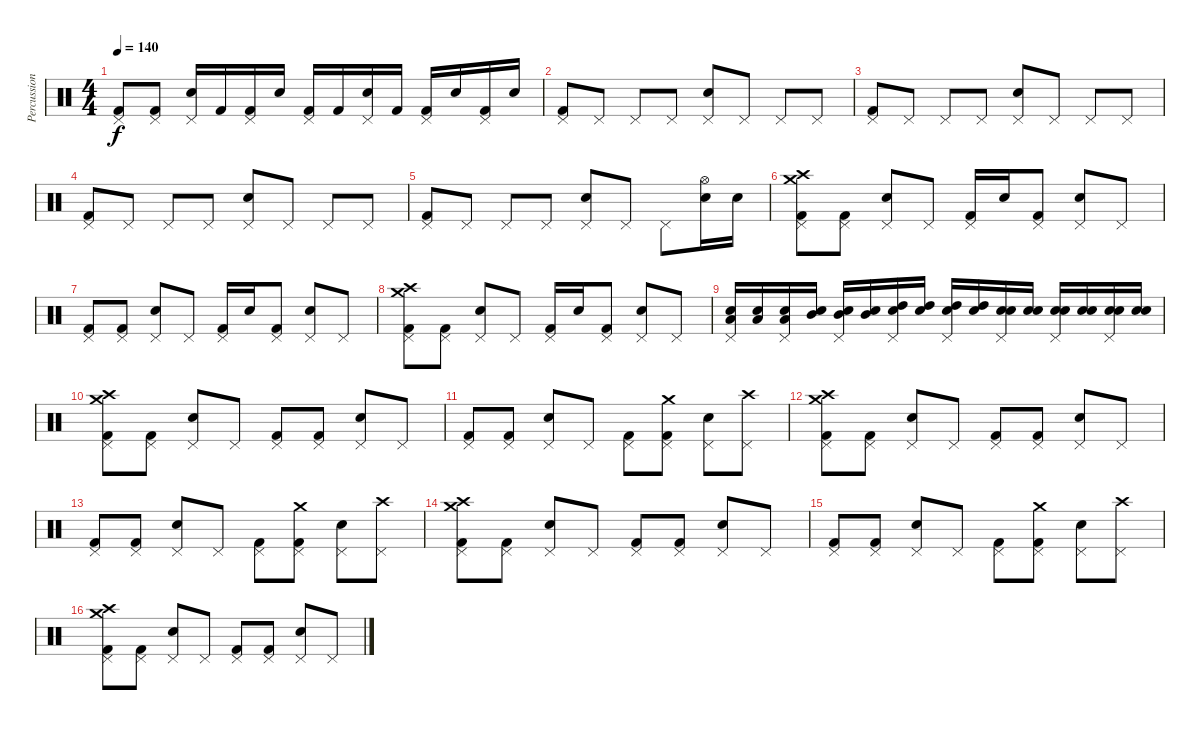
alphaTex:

\track ("Percussion" "Percussion") {instrument percussion}
\staff {score}
\articulation defaults
\ts (4 4)
\tempo 140
\clef neutral
\ks c
("Pedal Hi-Hat (hit)" "Kick (hit) 2").8{dy f} ("Pedal Hi-Hat (hit)" "Kick (hit) 2").8 ("Pedal Hi-Hat (hit)" "Electric Snare (hit)").16 "Kick (hit) 2".16 ("Pedal Hi-Hat (hit)" "Kick (hit) 2").16 "Electric Snare (hit)".16 ("Pedal Hi-Hat (hit)" "Kick (hit) 2").16 "Kick (hit) 2".16 ("Pedal Hi-Hat (hit)" "Electric Snare (hit)").16 "Kick (hit) 2".16 ("Pedal Hi-Hat (hit)" "Kick (hit) 2").16 "Electric Snare (hit)".16 ("Pedal Hi-Hat (hit)" "Kick (hit) 2").16 "Electric Snare (hit)".16 |
("Pedal Hi-Hat (hit)" "Kick (hit) 2").8{volume 6} "Pedal Hi-Hat (hit)".8 "Pedal Hi-Hat (hit)".8 "Pedal Hi-Hat (hit)".8 ("Pedal Hi-Hat (hit)" "Electric Snare (hit)").8 "Pedal Hi-Hat (hit)".8 "Pedal Hi-Hat (hit)".8 "Pedal Hi-Hat (hit)".8 |
("Pedal Hi-Hat (hit)" "Kick (hit) 2").8 "Pedal Hi-Hat (hit)".8 "Pedal Hi-Hat (hit)".8 "Pedal Hi-Hat (hit)".8 ("Pedal Hi-Hat (hit)" "Electric Snare (hit)").8 "Pedal Hi-Hat (hit)".8 "Pedal Hi-Hat (hit)".8 "Pedal Hi-Hat (hit)".8 |
("Pedal Hi-Hat (hit)" "Kick (hit) 2").8 "Pedal Hi-Hat (hit)".8 "Pedal Hi-Hat (hit)".8 "Pedal Hi-Hat (hit)".8 ("Pedal Hi-Hat (hit)" "Electric Snare (hit)").8 "Pedal Hi-Hat (hit)".8 "Pedal Hi-Hat (hit)".8 "Pedal Hi-Hat (hit)".8 |
("Pedal Hi-Hat (hit)" "Kick (hit) 2").8 "Pedal Hi-Hat (hit)".8 "Pedal Hi-Hat (hit)".8 "Pedal Hi-Hat (hit)".8 ("Pedal Hi-Hat (hit)" "Electric Snare (hit)").8 "Pedal Hi-Hat (hit)".8 "Pedal Hi-Hat (hit)".8 ("Hi-Hat (open)" "Electric Snare (hit)").16{volume 13} "Electric Snare (hit)".16 |
("Pedal Hi-Hat (hit)" "Kick (hit) 2" "Crash high (hit)" "Crash medium (hit)").8 ("Pedal Hi-Hat (hit)" "Kick (hit) 2").8 ("Pedal Hi-Hat (hit)" "Electric Snare (hit)").8 "Pedal Hi-Hat (hit)".8 ("Pedal Hi-Hat (hit)" "Kick (hit) 2").16 "Electric Snare (hit)".16 ("Pedal Hi-Hat (hit)" "Kick (hit) 2").8 ("Pedal Hi-Hat (hit)" "Electric Snare (hit)").8 "Pedal Hi-Hat (hit)".8 |
("Pedal Hi-Hat (hit)" "Kick (hit) 2").8 ("Pedal Hi-Hat (hit)" "Kick (hit) 2").8 ("Pedal Hi-Hat (hit)" "Electric Snare (hit)").8 "Pedal Hi-Hat (hit)".8 ("Pedal Hi-Hat (hit)" "Kick (hit) 2").16 "Electric Snare (hit)".16 ("Pedal Hi-Hat (hit)" "Kick (hit) 2").8 ("Pedal Hi-Hat (hit)" "Electric Snare (hit)").8 "Pedal Hi-Hat (hit)".8 |
("Pedal Hi-Hat (hit)" "Kick (hit) 2" "Crash high (hit)" "Crash medium (hit)").8 ("Pedal Hi-Hat (hit)" "Kick (hit) 2").8 ("Pedal Hi-Hat (hit)" "Electric Snare (hit)").8 "Pedal Hi-Hat (hit)".8 ("Pedal Hi-Hat (hit)" "Kick (hit) 2").16 "Electric Snare (hit)".16 ("Pedal Hi-Hat (hit)" "Kick (hit) 2").8 ("Pedal Hi-Hat (hit)" "Electric Snare (hit)").8 "Pedal Hi-Hat (hit)".8 |
("Pedal Hi-Hat (hit)" "Low Tom (hit)" "Electric Snare (hit)").16 ("Low Tom (hit)" "Electric Snare (hit)").16 ("Pedal Hi-Hat (hit)" "Low Tom (hit)" "Electric Snare (hit)").16 ("Mid Tom (hit)" "Electric Snare (hit)").16 ("Pedal Hi-Hat (hit)" "Mid Tom (hit)" "Electric Snare (hit)").16 ("Mid Tom (hit)" "Electric Snare (hit)").16 ("Pedal Hi-Hat (hit)" "High Tom (hit)" "Electric Snare (hit)").16 ("High Tom (hit)" "Electric Snare (hit)").16 ("Pedal Hi-Hat (hit)" "High Tom (hit)" "Electric Snare (hit)").16 ("High Tom (hit)" "Electric Snare (hit)").16 ("Pedal Hi-Hat (hit)" "Electric Snare (hit)" "Electric Snare (hit)").16 ("Electric Snare (hit)" "Electric Snare (hit)").16 ("Pedal Hi-Hat (hit)" "Electric Snare (hit)" "Electric Snare (hit)").16 ("Electric Snare (hit)" "Electric Snare (hit)").16 ("Pedal Hi-Hat (hit)" "Electric Snare (hit)" "Electric Snare (hit)").16 ("Electric Snare (hit)" "Electric Snare (hit)").16 |
("Pedal Hi-Hat (hit)" "Kick (hit) 2" "Crash high (hit)" "Crash medium (hit)").8 ("Pedal Hi-Hat (hit)" "Kick (hit) 2").8 ("Pedal Hi-Hat (hit)" "Electric Snare (hit)").8 "Pedal Hi-Hat (hit)".8 ("Pedal Hi-Hat (hit)" "Kick (hit) 2").8 ("Pedal Hi-Hat (hit)" "Kick (hit) 2").8 ("Pedal Hi-Hat (hit)" "Electric Snare (hit)").8 "Pedal Hi-Hat (hit)".8 |
("Pedal Hi-Hat (hit)" "Kick (hit) 2").8 ("Pedal Hi-Hat (hit)" "Kick (hit) 2").8 ("Pedal Hi-Hat (hit)" "Electric Snare (hit)").8 "Pedal Hi-Hat (hit)".8 ("Pedal Hi-Hat (hit)" "Kick (hit) 2").8 ("Pedal Hi-Hat (hit)" "Kick (hit) 2" "Crash medium (hit)").8 ("Pedal Hi-Hat (hit)" "Electric Snare (hit)").8 ("Pedal Hi-Hat (hit)" "Crash high (hit)").8 |
("Pedal Hi-Hat (hit)" "Kick (hit) 2" "Crash high (hit)" "Crash medium (hit)").8 ("Pedal Hi-Hat (hit)" "Kick (hit) 2").8 ("Pedal Hi-Hat (hit)" "Electric Snare (hit)").8 "Pedal Hi-Hat (hit)".8 ("Pedal Hi-Hat (hit)" "Kick (hit) 2").8 ("Pedal Hi-Hat (hit)" "Kick (hit) 2").8 ("Pedal Hi-Hat (hit)" "Electric Snare (hit)").8 "Pedal Hi-Hat (hit)".8 |
("Pedal Hi-Hat (hit)" "Kick (hit) 2").8 ("Pedal Hi-Hat (hit)" "Kick (hit) 2").8 ("Pedal Hi-Hat (hit)" "Electric Snare (hit)").8 "Pedal Hi-Hat (hit)".8 ("Pedal Hi-Hat (hit)" "Kick (hit) 2").8 ("Pedal Hi-Hat (hit)" "Kick (hit) 2" "Crash medium (hit)").8 ("Pedal Hi-Hat (hit)" "Electric Snare (hit)").8 ("Pedal Hi-Hat (hit)" "Crash high (hit)").8 |
("Pedal Hi-Hat (hit)" "Kick (hit) 2" "Crash high (hit)" "Crash medium (hit)").8 ("Pedal Hi-Hat (hit)" "Kick (hit) 2").8 ("Pedal Hi-Hat (hit)" "Electric Snare (hit)").8 "Pedal Hi-Hat (hit)".8 ("Pedal Hi-Hat (hit)" "Kick (hit) 2").8 ("Pedal Hi-Hat (hit)" "Kick (hit) 2").8 ("Pedal Hi-Hat (hit)" "Electric Snare (hit)").8 "Pedal Hi-Hat (hit)".8 |
("Pedal Hi-Hat (hit)" "Kick (hit) 2").8 ("Pedal Hi-Hat (hit)" "Kick (hit) 2").8 ("Pedal Hi-Hat (hit)" "Electric Snare (hit)").8 "Pedal Hi-Hat (hit)".8 ("Pedal Hi-Hat (hit)" "Kick (hit) 2").8 ("Pedal Hi-Hat (hit)" "Kick (hit) 2" "Crash medium (hit)").8 ("Pedal Hi-Hat (hit)" "Electric Snare (hit)").8 ("Pedal Hi-Hat (hit)" "Crash high (hit)").8 |
("Pedal Hi-Hat (hit)" "Kick (hit) 2" "Crash high (hit)" "Crash medium (hit)").8 ("Pedal Hi-Hat (hit)" "Kick (hit) 2").8 ("Pedal Hi-Hat (hit)" "Electric Snare (hit)").8 "Pedal Hi-Hat (hit)".8 ("Pedal Hi-Hat (hit)" "Kick (hit) 2").8 ("Pedal Hi-Hat (hit)" "Kick (hit) 2").8 ("Pedal Hi-Hat (hit)" "Electric Snare (hit)").8 "Pedal Hi-Hat (hit)".8
